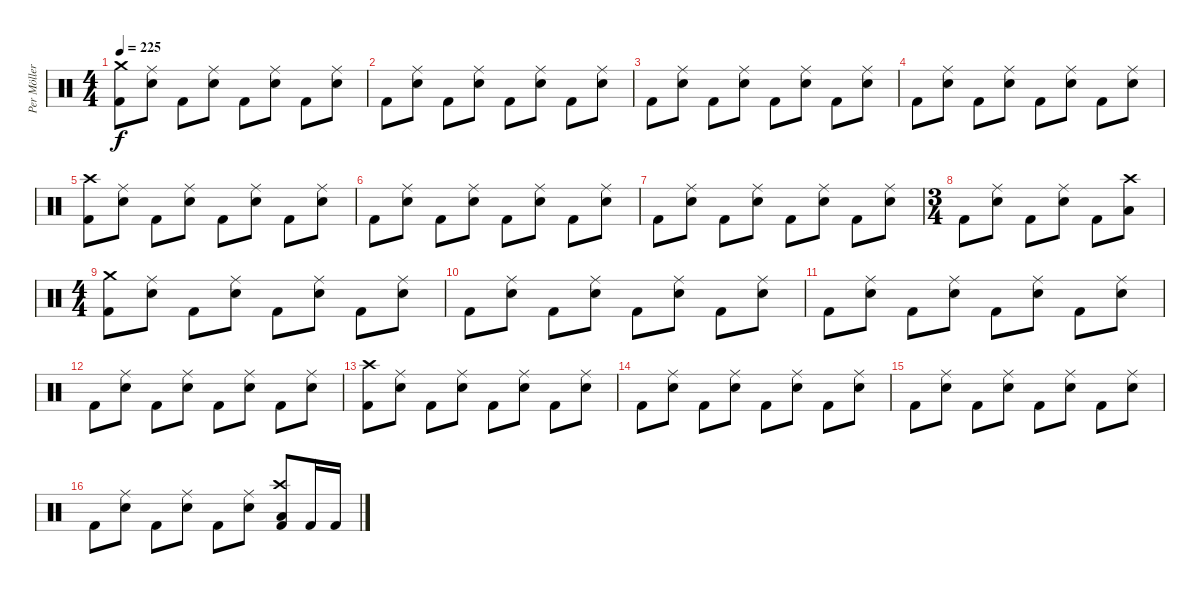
\track ("Per Möller Jensen" "Per Möller") {instrument percussion}
\staff {score}
\articulation defaults
\ts (4 4)
\tempo 225
\clef neutral
\ks c
("Crash medium (hit)" "Kick (hit) 2").8{dy f} ("Ride (middle)" "Snare (hit) 2").8 "Kick (hit) 2".8 ("Ride (middle)" "Snare (hit) 2").8 "Kick (hit) 2".8 ("Ride (middle)" "Snare (hit) 2").8 "Kick (hit) 2".8 ("Ride (middle)" "Snare (hit) 2").8 |
"Kick (hit) 2".8 ("Ride (middle)" "Snare (hit) 2").8 "Kick (hit) 2".8 ("Ride (middle)" "Snare (hit) 2").8 "Kick (hit) 2".8 ("Ride (middle)" "Snare (hit) 2").8 "Kick (hit) 2".8 ("Ride (middle)" "Snare (hit) 2").8 |
"Kick (hit) 2".8 ("Ride (middle)" "Snare (hit) 2").8 "Kick (hit) 2".8 ("Ride (middle)" "Snare (hit) 2").8 "Kick (hit) 2".8 ("Ride (middle)" "Snare (hit) 2").8 "Kick (hit) 2".8 ("Ride (middle)" "Snare (hit) 2").8 |
"Kick (hit) 2".8 ("Ride (middle)" "Snare (hit) 2").8 "Kick (hit) 2".8 ("Ride (middle)" "Snare (hit) 2").8 "Kick (hit) 2".8 ("Ride (middle)" "Snare (hit) 2").8 "Kick (hit) 2".8 ("Ride (middle)" "Snare (hit) 2").8 |
("Crash high (hit)" "Kick (hit) 2").8 ("Ride (middle)" "Snare (hit) 2").8 "Kick (hit) 2".8 ("Ride (middle)" "Snare (hit) 2").8 "Kick (hit) 2".8 ("Ride (middle)" "Snare (hit) 2").8 "Kick (hit) 2".8 ("Ride (middle)" "Snare (hit) 2").8 |
"Kick (hit) 2".8 ("Ride (middle)" "Snare (hit) 2").8 "Kick (hit) 2".8 ("Ride (middle)" "Snare (hit) 2").8 "Kick (hit) 2".8 ("Ride (middle)" "Snare (hit) 2").8 "Kick (hit) 2".8 ("Ride (middle)" "Snare (hit) 2").8 |
"Kick (hit) 2".8 ("Ride (middle)" "Snare (hit) 2").8 "Kick (hit) 2".8 ("Ride (middle)" "Snare (hit) 2").8 "Kick (hit) 2".8 ("Ride (middle)" "Snare (hit) 2").8 "Kick (hit) 2".8 ("Ride (middle)" "Snare (hit) 2").8 |
\ts (3 4)
"Kick (hit) 2".8 ("Ride (middle)" "Snare (hit) 2").8 "Kick (hit) 2".8 ("Ride (middle)" "Snare (hit) 2").8 "Kick (hit) 2".8 ("Crash high (hit)" "Low Floor Tom (hit)").8 |
\ts (4 4)
("Crash medium (hit)" "Kick (hit) 2").8 ("Ride (middle)" "Snare (hit) 2").8 "Kick (hit) 2".8 ("Ride (middle)" "Snare (hit) 2").8 "Kick (hit) 2".8 ("Ride (middle)" "Snare (hit) 2").8 "Kick (hit) 2".8 ("Ride (middle)" "Snare (hit) 2").8 |
"Kick (hit) 2".8 ("Ride (middle)" "Snare (hit) 2").8 "Kick (hit) 2".8 ("Ride (middle)" "Snare (hit) 2").8 "Kick (hit) 2".8 ("Ride (middle)" "Snare (hit) 2").8 "Kick (hit) 2".8 ("Ride (middle)" "Snare (hit) 2").8 |
"Kick (hit) 2".8 ("Ride (middle)" "Snare (hit) 2").8 "Kick (hit) 2".8 ("Ride (middle)" "Snare (hit) 2").8 "Kick (hit) 2".8 ("Ride (middle)" "Snare (hit) 2").8 "Kick (hit) 2".8 ("Ride (middle)" "Snare (hit) 2").8 |
"Kick (hit) 2".8 ("Ride (middle)" "Snare (hit) 2").8 "Kick (hit) 2".8 ("Ride (middle)" "Snare (hit) 2").8 "Kick (hit) 2".8 ("Ride (middle)" "Snare (hit) 2").8 "Kick (hit) 2".8 ("Ride (middle)" "Snare (hit) 2").8 |
("Crash high (hit)" "Kick (hit) 2").8 ("Ride (middle)" "Snare (hit) 2").8 "Kick (hit) 2".8 ("Ride (middle)" "Snare (hit) 2").8 "Kick (hit) 2".8 ("Ride (middle)" "Snare (hit) 2").8 "Kick (hit) 2".8 ("Ride (middle)" "Snare (hit) 2").8 |
"Kick (hit) 2".8 ("Ride (middle)" "Snare (hit) 2").8 "Kick (hit) 2".8 ("Ride (middle)" "Snare (hit) 2").8 "Kick (hit) 2".8 ("Ride (middle)" "Snare (hit) 2").8 "Kick (hit) 2".8 ("Ride (middle)" "Snare (hit) 2").8 |
"Kick (hit) 2".8 ("Ride (middle)" "Snare (hit) 2").8 "Kick (hit) 2".8 ("Ride (middle)" "Snare (hit) 2").8 "Kick (hit) 2".8 ("Ride (middle)" "Snare (hit) 2").8 "Kick (hit) 2".8 ("Ride (middle)" "Snare (hit) 2").8 |
"Kick (hit) 2".8 ("Ride (middle)" "Snare (hit) 2").8 "Kick (hit) 2".8 ("Ride (middle)" "Snare (hit) 2").8 "Kick (hit) 2".8 ("Ride (middle)" "Snare (hit) 2").8 ("Crash high (hit)" "Low Floor Tom (hit)" "Kick (hit) 2").8 "Kick (hit) 2".16 "Kick (hit) 2".16
